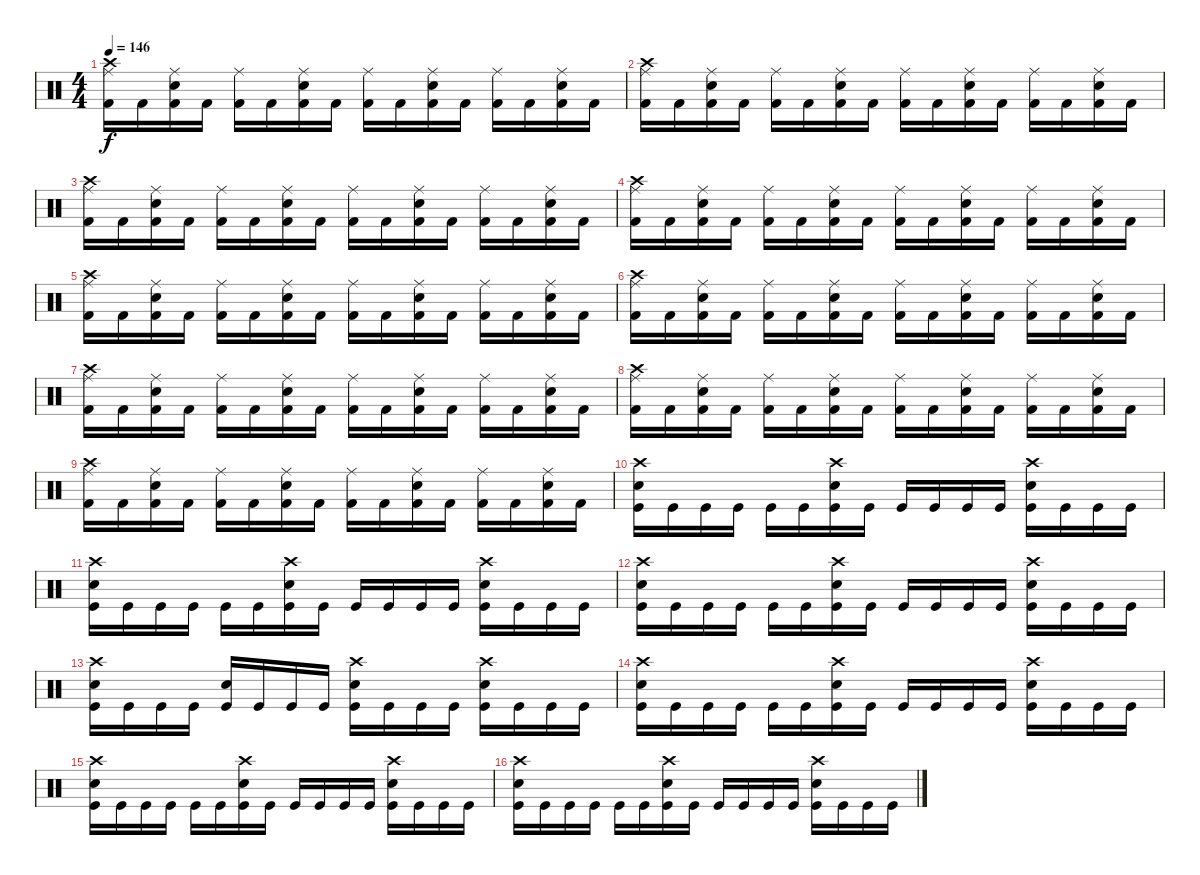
\track "" {instrument percussion}
\staff {score}
\articulation defaults
\ts (4 4)
\tempo 146
\clef neutral
\ks c
("Crash high (hit)" "Ride (middle)" "Kick (hit) 2").16{dy f} "Kick (hit) 2".16 ("Electric Snare (hit)" "Ride (middle)" "Kick (hit) 2").16 "Kick (hit) 2".16 ("Ride (middle)" "Kick (hit) 2").16 "Kick (hit) 2".16 ("Electric Snare (hit)" "Ride (middle)" "Kick (hit) 2").16 "Kick (hit) 2".16 ("Ride (middle)" "Kick (hit) 2").16 "Kick (hit) 2".16 ("Electric Snare (hit)" "Ride (middle)" "Kick (hit) 2").16 "Kick (hit) 2".16 ("Ride (middle)" "Kick (hit) 2").16 "Kick (hit) 2".16 ("Electric Snare (hit)" "Ride (middle)" "Kick (hit) 2").16 "Kick (hit) 2".16 |
("Crash high (hit)" "Ride (middle)" "Kick (hit) 2").16 "Kick (hit) 2".16 ("Electric Snare (hit)" "Ride (middle)" "Kick (hit) 2").16 "Kick (hit) 2".16 ("Ride (middle)" "Kick (hit) 2").16 "Kick (hit) 2".16 ("Electric Snare (hit)" "Ride (middle)" "Kick (hit) 2").16 "Kick (hit) 2".16 ("Ride (middle)" "Kick (hit) 2").16 "Kick (hit) 2".16 ("Electric Snare (hit)" "Ride (middle)" "Kick (hit) 2").16 "Kick (hit) 2".16 ("Ride (middle)" "Kick (hit) 2").16 "Kick (hit) 2".16 ("Electric Snare (hit)" "Ride (middle)" "Kick (hit) 2").16 "Kick (hit) 2".16 |
("Crash high (hit)" "Ride (middle)" "Kick (hit) 2").16 "Kick (hit) 2".16 ("Electric Snare (hit)" "Ride (middle)" "Kick (hit) 2").16 "Kick (hit) 2".16 ("Ride (middle)" "Kick (hit) 2").16 "Kick (hit) 2".16 ("Electric Snare (hit)" "Ride (middle)" "Kick (hit) 2").16 "Kick (hit) 2".16 ("Ride (middle)" "Kick (hit) 2").16 "Kick (hit) 2".16 ("Electric Snare (hit)" "Ride (middle)" "Kick (hit) 2").16 "Kick (hit) 2".16 ("Ride (middle)" "Kick (hit) 2").16 "Kick (hit) 2".16 ("Electric Snare (hit)" "Ride (middle)" "Kick (hit) 2").16 "Kick (hit) 2".16 |
("Crash high (hit)" "Ride (middle)" "Kick (hit) 2").16 "Kick (hit) 2".16 ("Electric Snare (hit)" "Ride (middle)" "Kick (hit) 2").16 "Kick (hit) 2".16 ("Ride (middle)" "Kick (hit) 2").16 "Kick (hit) 2".16 ("Electric Snare (hit)" "Ride (middle)" "Kick (hit) 2").16 "Kick (hit) 2".16 ("Ride (middle)" "Kick (hit) 2").16 "Kick (hit) 2".16 ("Electric Snare (hit)" "Ride (middle)" "Kick (hit) 2").16 "Kick (hit) 2".16 ("Ride (middle)" "Kick (hit) 2").16 "Kick (hit) 2".16 ("Electric Snare (hit)" "Ride (middle)" "Kick (hit) 2").16 "Kick (hit) 2".16 |
("Crash high (hit)" "Ride (middle)" "Kick (hit) 2").16 "Kick (hit) 2".16 ("Electric Snare (hit)" "Ride (middle)" "Kick (hit) 2").16 "Kick (hit) 2".16 ("Ride (middle)" "Kick (hit) 2").16 "Kick (hit) 2".16 ("Electric Snare (hit)" "Ride (middle)" "Kick (hit) 2").16 "Kick (hit) 2".16 ("Ride (middle)" "Kick (hit) 2").16 "Kick (hit) 2".16 ("Electric Snare (hit)" "Ride (middle)" "Kick (hit) 2").16 "Kick (hit) 2".16 ("Ride (middle)" "Kick (hit) 2").16 "Kick (hit) 2".16 ("Electric Snare (hit)" "Ride (middle)" "Kick (hit) 2").16 "Kick (hit) 2".16 |
("Crash high (hit)" "Ride (middle)" "Kick (hit) 2").16 "Kick (hit) 2".16 ("Electric Snare (hit)" "Ride (middle)" "Kick (hit) 2").16 "Kick (hit) 2".16 ("Ride (middle)" "Kick (hit) 2").16 "Kick (hit) 2".16 ("Electric Snare (hit)" "Ride (middle)" "Kick (hit) 2").16 "Kick (hit) 2".16 ("Ride (middle)" "Kick (hit) 2").16 "Kick (hit) 2".16 ("Electric Snare (hit)" "Ride (middle)" "Kick (hit) 2").16 "Kick (hit) 2".16 ("Ride (middle)" "Kick (hit) 2").16 "Kick (hit) 2".16 ("Electric Snare (hit)" "Ride (middle)" "Kick (hit) 2").16 "Kick (hit) 2".16 |
("Crash high (hit)" "Ride (middle)" "Kick (hit) 2").16 "Kick (hit) 2".16 ("Electric Snare (hit)" "Ride (middle)" "Kick (hit) 2").16 "Kick (hit) 2".16 ("Ride (middle)" "Kick (hit) 2").16 "Kick (hit) 2".16 ("Electric Snare (hit)" "Ride (middle)" "Kick (hit) 2").16 "Kick (hit) 2".16 ("Ride (middle)" "Kick (hit) 2").16 "Kick (hit) 2".16 ("Electric Snare (hit)" "Ride (middle)" "Kick (hit) 2").16 "Kick (hit) 2".16 ("Ride (middle)" "Kick (hit) 2").16 "Kick (hit) 2".16 ("Electric Snare (hit)" "Ride (middle)" "Kick (hit) 2").16 "Kick (hit) 2".16 |
("Crash high (hit)" "Ride (middle)" "Kick (hit) 2").16 "Kick (hit) 2".16 ("Electric Snare (hit)" "Ride (middle)" "Kick (hit) 2").16 "Kick (hit) 2".16 ("Ride (middle)" "Kick (hit) 2").16 "Kick (hit) 2".16 ("Electric Snare (hit)" "Ride (middle)" "Kick (hit) 2").16 "Kick (hit) 2".16 ("Ride (middle)" "Kick (hit) 2").16 "Kick (hit) 2".16 ("Electric Snare (hit)" "Ride (middle)" "Kick (hit) 2").16 "Kick (hit) 2".16 ("Ride (middle)" "Kick (hit) 2").16 "Kick (hit) 2".16 ("Electric Snare (hit)" "Ride (middle)" "Kick (hit) 2").16 "Kick (hit) 2".16 |
("Crash high (hit)" "Ride (middle)" "Kick (hit) 2").16 "Kick (hit) 2".16 ("Electric Snare (hit)" "Ride (middle)" "Kick (hit) 2").16 "Kick (hit) 2".16 ("Ride (middle)" "Kick (hit) 2").16 "Kick (hit) 2".16 ("Electric Snare (hit)" "Ride (middle)" "Kick (hit) 2").16 "Kick (hit) 2".16 ("Ride (middle)" "Kick (hit) 2").16 "Kick (hit) 2".16 ("Electric Snare (hit)" "Ride (middle)" "Kick (hit) 2").16 "Kick (hit) 2".16 ("Ride (middle)" "Kick (hit) 2").16 "Kick (hit) 2".16 ("Electric Snare (hit)" "Ride (middle)" "Kick (hit) 2").16 "Kick (hit) 2".16 |
("Kick (hit)" "Snare (hit) 2" "Crash high (hit)").16 "Kick (hit)".16 "Kick (hit)".16 "Kick (hit)".16 "Kick (hit)".16 "Kick (hit)".16 ("Kick (hit)" "Snare (hit) 2" "Crash high (hit)").16 "Kick (hit)".16 "Kick (hit)".16 "Kick (hit)".16 "Kick (hit)".16 "Kick (hit)".16 ("Kick (hit)" "Snare (hit) 2" "Crash high (hit)").16 "Kick (hit)".16 "Kick (hit)".16 "Kick (hit)".16 |
("Kick (hit)" "Snare (hit) 2" "Crash high (hit)").16 "Kick (hit)".16 "Kick (hit)".16 "Kick (hit)".16 "Kick (hit)".16 "Kick (hit)".16 ("Kick (hit)" "Snare (hit) 2" "Crash high (hit)").16 "Kick (hit)".16 "Kick (hit)".16 "Kick (hit)".16 "Kick (hit)".16 "Kick (hit)".16 ("Kick (hit)" "Snare (hit) 2" "Crash high (hit)").16 "Kick (hit)".16 "Kick (hit)".16 "Kick (hit)".16 |
("Kick (hit)" "Snare (hit) 2" "Crash high (hit)").16 "Kick (hit)".16 "Kick (hit)".16 "Kick (hit)".16 "Kick (hit)".16 "Kick (hit)".16 ("Kick (hit)" "Snare (hit) 2" "Crash high (hit)").16 "Kick (hit)".16 "Kick (hit)".16 "Kick (hit)".16 "Kick (hit)".16 "Kick (hit)".16 ("Kick (hit)" "Snare (hit) 2" "Crash high (hit)").16 "Kick (hit)".16 "Kick (hit)".16 "Kick (hit)".16 |
("Kick (hit)" "Snare (hit) 2" "Crash high (hit)").16 "Kick (hit)".16 "Kick (hit)".16 "Kick (hit)".16 ("Kick (hit)" "Snare (hit) 2").16 "Kick (hit)".16 "Kick (hit)".16 "Kick (hit)".16 ("Kick (hit)" "Snare (hit) 2" "Crash high (hit)").16 "Kick (hit)".16 "Kick (hit)".16 "Kick (hit)".16 ("Kick (hit)" "Snare (hit) 2" "Crash high (hit)").16 "Kick (hit)".16 "Kick (hit)".16 "Kick (hit)".16 |
("Kick (hit)" "Snare (hit) 2" "Crash high (hit)").16 "Kick (hit)".16 "Kick (hit)".16 "Kick (hit)".16 "Kick (hit)".16 "Kick (hit)".16 ("Kick (hit)" "Snare (hit) 2" "Crash high (hit)").16 "Kick (hit)".16 "Kick (hit)".16 "Kick (hit)".16 "Kick (hit)".16 "Kick (hit)".16 ("Kick (hit)" "Snare (hit) 2" "Crash high (hit)").16 "Kick (hit)".16 "Kick (hit)".16 "Kick (hit)".16 |
("Kick (hit)" "Snare (hit) 2" "Crash high (hit)").16 "Kick (hit)".16 "Kick (hit)".16 "Kick (hit)".16 "Kick (hit)".16 "Kick (hit)".16 ("Kick (hit)" "Snare (hit) 2" "Crash high (hit)").16 "Kick (hit)".16 "Kick (hit)".16 "Kick (hit)".16 "Kick (hit)".16 "Kick (hit)".16 ("Kick (hit)" "Snare (hit) 2" "Crash high (hit)").16 "Kick (hit)".16 "Kick (hit)".16 "Kick (hit)".16 |
("Kick (hit)" "Snare (hit) 2" "Crash high (hit)").16 "Kick (hit)".16 "Kick (hit)".16 "Kick (hit)".16 "Kick (hit)".16 "Kick (hit)".16 ("Kick (hit)" "Snare (hit) 2" "Crash high (hit)").16 "Kick (hit)".16 "Kick (hit)".16 "Kick (hit)".16 "Kick (hit)".16 "Kick (hit)".16 ("Kick (hit)" "Snare (hit) 2" "Crash high (hit)").16 "Kick (hit)".16 "Kick (hit)".16 "Kick (hit)".16
